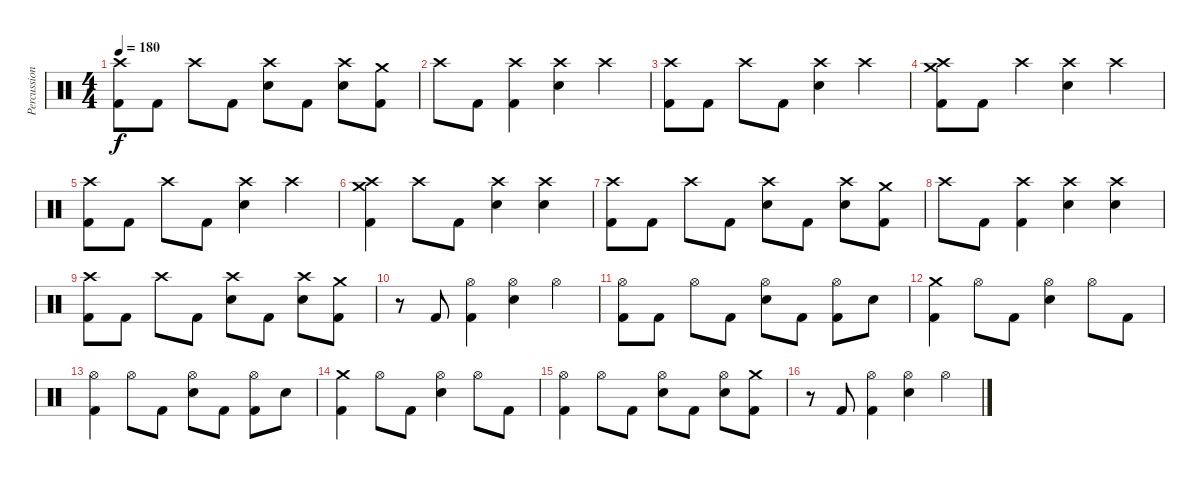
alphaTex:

\track ("Percussion" "Percussion") {instrument percussion}
\staff {score}
\articulation defaults
\ts (4 4)
\tempo 180
\clef neutral
\ks c
("Crash high (hit)" "Kick (hit) 2").8{dy f} "Kick (hit) 2".8 "Crash high (hit)".8 "Kick (hit) 2".8 ("Crash high (hit)" "Electric Snare (hit)").8 "Kick (hit) 2".8 ("Crash high (hit)" "Electric Snare (hit)").8 ("Crash medium (hit)" "Kick (hit) 2").8 |
"Crash high (hit)".8 "Kick (hit) 2".8 ("Crash high (hit)" "Kick (hit) 2").4 ("Crash high (hit)" "Electric Snare (hit)").4 "Crash high (hit)".4 |
("Crash high (hit)" "Kick (hit) 2").8 "Kick (hit) 2".8 "Crash high (hit)".8 "Kick (hit) 2".8 ("Crash high (hit)" "Electric Snare (hit)").4 "Crash high (hit)".4 |
("Crash high (hit)" "Crash medium (hit)" "Kick (hit) 2").8 "Kick (hit) 2".8 "Crash high (hit)".4 ("Crash high (hit)" "Electric Snare (hit)").4 "Crash high (hit)".4 |
("Crash high (hit)" "Kick (hit) 2").8 "Kick (hit) 2".8 "Crash high (hit)".8 "Kick (hit) 2".8 ("Crash high (hit)" "Electric Snare (hit)").4 "Crash high (hit)".4 |
("Crash high (hit)" "Crash medium (hit)" "Kick (hit) 2").4 "Crash high (hit)".8 "Kick (hit) 2".8 ("Crash high (hit)" "Electric Snare (hit)").4 ("Crash high (hit)" "Electric Snare (hit)").4 |
("Crash high (hit)" "Kick (hit) 2").8 "Kick (hit) 2".8 "Crash high (hit)".8 "Kick (hit) 2".8 ("Crash high (hit)" "Electric Snare (hit)").8 "Kick (hit) 2".8 ("Crash high (hit)" "Electric Snare (hit)").8 ("Crash medium (hit)" "Kick (hit) 2").8 |
"Crash high (hit)".8 "Kick (hit) 2".8 ("Crash high (hit)" "Kick (hit) 2").4 ("Crash high (hit)" "Electric Snare (hit)").4 ("Crash high (hit)" "Electric Snare (hit)").4 |
("Crash high (hit)" "Kick (hit) 2").8 "Kick (hit) 2".8 "Crash high (hit)".8 "Kick (hit) 2".8 ("Crash high (hit)" "Electric Snare (hit)").8 "Kick (hit) 2".8 ("Crash high (hit)" "Electric Snare (hit)").8 ("Crash medium (hit)" "Kick (hit) 2").8 |
r.8 "Kick (hit) 2".8 ("Hi-Hat (open)" "Kick (hit) 2").4 ("Hi-Hat (open)" "Electric Snare (hit)").4 "Hi-Hat (open)".4 |
("Hi-Hat (open)" "Kick (hit) 2").8 "Kick (hit) 2".8 "Hi-Hat (open)".8 "Kick (hit) 2".8 ("Hi-Hat (open)" "Electric Snare (hit)").8 "Kick (hit) 2".8 ("Hi-Hat (open)" "Kick (hit) 2").8 "Electric Snare (hit)".8 |
("Crash medium (hit)" "Kick (hit) 2").4 "Hi-Hat (open)".8 "Kick (hit) 2".8 ("Hi-Hat (open)" "Electric Snare (hit)").4 "Hi-Hat (open)".8 "Kick (hit) 2".8 |
("Hi-Hat (open)" "Kick (hit) 2").4 "Hi-Hat (open)".8 "Kick (hit) 2".8 ("Hi-Hat (open)" "Electric Snare (hit)").8 "Kick (hit) 2".8 ("Hi-Hat (open)" "Kick (hit) 2").8 "Electric Snare (hit)".8 |
("Crash medium (hit)" "Kick (hit) 2").4 "Hi-Hat (open)".8 "Kick (hit) 2".8 ("Hi-Hat (open)" "Electric Snare (hit)").4 "Hi-Hat (open)".8 "Kick (hit) 2".8 |
("Hi-Hat (open)" "Kick (hit) 2").4 "Hi-Hat (open)".8 "Kick (hit) 2".8 ("Hi-Hat (open)" "Electric Snare (hit)").8 "Kick (hit) 2".8 ("Hi-Hat (open)" "Electric Snare (hit)").8 ("Crash medium (hit)" "Kick (hit) 2").8 |
r.8 "Kick (hit) 2".8 ("Hi-Hat (open)" "Kick (hit) 2").4 ("Hi-Hat (open)" "Electric Snare (hit)").4 "Hi-Hat (open)".4
